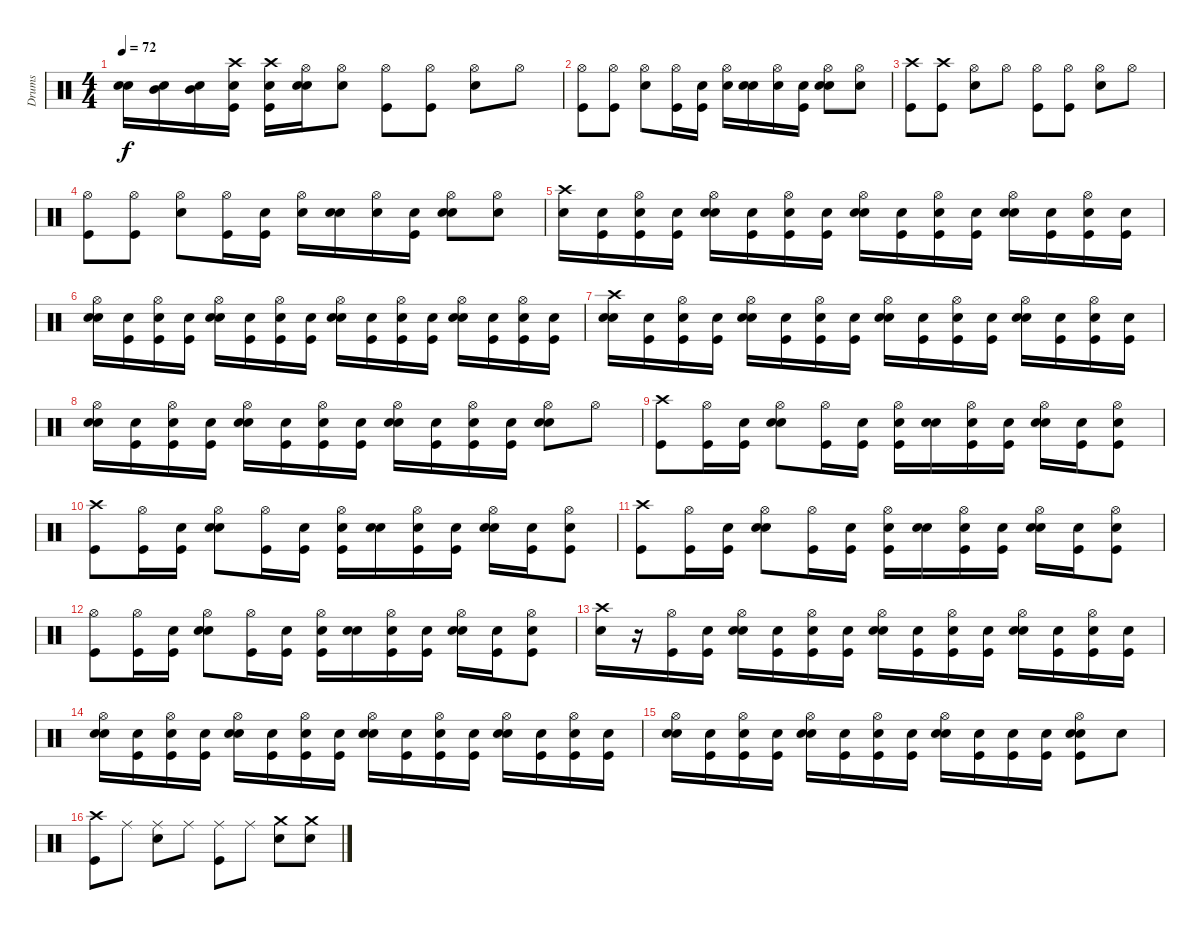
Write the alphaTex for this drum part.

\track ("Drums" "Drums") {instrument percussion}
\staff {score}
\articulation defaults
\ts (4 4)
\tempo 72
\clef neutral
\ks c
("Snare (hit)" "Snare (hit) 2").16{dy f} ("Snare (hit)" "Mid Tom (hit)").16 ("Snare (hit)" "Mid Tom (hit)").16 ("Snare (hit)" "Kick (hit)" "Crash high (hit)").16 ("Snare (hit)" "Kick (hit)" "Crash high (hit)").16 ("Snare (hit)" "Snare (hit) 2" "Hi-Hat (open)").16 ("Snare (hit)" "Hi-Hat (open)").8 ("Kick (hit)" "Hi-Hat (open)").8 ("Kick (hit)" "Hi-Hat (open)").8 ("Snare (hit) 2" "Hi-Hat (open)").8 "Hi-Hat (open)".8 |
("Kick (hit)" "Hi-Hat (open)").8 ("Kick (hit)" "Hi-Hat (open)").8 ("Snare (hit) 2" "Hi-Hat (open)").8 ("Kick (hit)" "Hi-Hat (open)").16 ("Snare (hit)" "Kick (hit)").16 ("Snare (hit)" "Hi-Hat (open)").16 ("Snare (hit)" "Snare (hit) 2").16 ("Snare (hit)" "Hi-Hat (open)").16 ("Snare (hit)" "Kick (hit)").16 ("Snare (hit)" "Snare (hit) 2" "Hi-Hat (open)").8 ("Snare (hit) 2" "Hi-Hat (open)").8 |
("Kick (hit)" "Crash high (hit)").8 ("Kick (hit)" "Crash high (hit)").8 ("Snare (hit) 2" "Hi-Hat (open)").8 "Hi-Hat (open)".8 ("Kick (hit)" "Hi-Hat (open)").8 ("Kick (hit)" "Hi-Hat (open)").8 ("Snare (hit) 2" "Hi-Hat (open)").8 "Hi-Hat (open)".8 |
("Kick (hit)" "Hi-Hat (open)").8 ("Kick (hit)" "Hi-Hat (open)").8 ("Snare (hit) 2" "Hi-Hat (open)").8 ("Kick (hit)" "Hi-Hat (open)").16 ("Snare (hit)" "Kick (hit)").16 ("Snare (hit)" "Hi-Hat (open)").16 ("Snare (hit)" "Snare (hit) 2").16 ("Snare (hit)" "Hi-Hat (open)").16 ("Snare (hit)" "Kick (hit)").16 ("Snare (hit)" "Snare (hit) 2" "Hi-Hat (open)").8 ("Snare (hit) 2" "Hi-Hat (open)").8 |
("Snare (hit) 2" "Crash high (hit)").16 ("Snare (hit)" "Kick (hit)").16 ("Snare (hit)" "Kick (hit)" "Hi-Hat (open)").16 ("Snare (hit)" "Kick (hit)").16 ("Snare (hit)" "Snare (hit) 2" "Hi-Hat (open)").16 ("Snare (hit)" "Kick (hit)").16 ("Snare (hit)" "Kick (hit)" "Hi-Hat (open)").16 ("Snare (hit)" "Kick (hit)").16 ("Snare (hit)" "Snare (hit) 2" "Hi-Hat (open)").16 ("Snare (hit)" "Kick (hit)").16 ("Snare (hit)" "Kick (hit)" "Hi-Hat (open)").16 ("Snare (hit)" "Kick (hit)").16 ("Snare (hit)" "Snare (hit) 2" "Hi-Hat (open)").16 ("Snare (hit)" "Kick (hit)").16 ("Snare (hit)" "Kick (hit)" "Hi-Hat (open)").16 ("Snare (hit)" "Kick (hit)").16 |
("Snare (hit)" "Snare (hit) 2" "Hi-Hat (open)").16 ("Snare (hit)" "Kick (hit)").16 ("Snare (hit)" "Kick (hit)" "Hi-Hat (open)").16 ("Snare (hit)" "Kick (hit)").16 ("Snare (hit)" "Snare (hit) 2" "Hi-Hat (open)").16 ("Snare (hit)" "Kick (hit)").16 ("Snare (hit)" "Kick (hit)" "Hi-Hat (open)").16 ("Snare (hit)" "Kick (hit)").16 ("Snare (hit)" "Snare (hit) 2" "Hi-Hat (open)").16 ("Snare (hit)" "Kick (hit)").16 ("Snare (hit)" "Kick (hit)" "Hi-Hat (open)").16 ("Snare (hit)" "Kick (hit)").16 ("Snare (hit)" "Snare (hit) 2" "Hi-Hat (open)").16 ("Snare (hit)" "Kick (hit)").16 ("Snare (hit)" "Kick (hit)" "Hi-Hat (open)").16 ("Snare (hit)" "Kick (hit)").16 |
("Snare (hit)" "Snare (hit) 2" "Crash high (hit)").16 ("Snare (hit)" "Kick (hit)").16 ("Snare (hit)" "Kick (hit)" "Hi-Hat (open)").16 ("Snare (hit)" "Kick (hit)").16 ("Snare (hit)" "Snare (hit) 2" "Hi-Hat (open)").16 ("Snare (hit)" "Kick (hit)").16 ("Snare (hit)" "Kick (hit)" "Hi-Hat (open)").16 ("Snare (hit)" "Kick (hit)").16 ("Snare (hit)" "Snare (hit) 2" "Hi-Hat (open)").16 ("Snare (hit)" "Kick (hit)").16 ("Snare (hit)" "Kick (hit)" "Hi-Hat (open)").16 ("Snare (hit)" "Kick (hit)").16 ("Snare (hit)" "Snare (hit) 2" "Hi-Hat (open)").16 ("Snare (hit)" "Kick (hit)").16 ("Snare (hit)" "Kick (hit)" "Hi-Hat (open)").16 ("Snare (hit)" "Kick (hit)").16 |
("Snare (hit)" "Snare (hit) 2" "Hi-Hat (open)").16 ("Snare (hit)" "Kick (hit)").16 ("Snare (hit)" "Kick (hit)" "Hi-Hat (open)").16 ("Snare (hit)" "Kick (hit)").16 ("Snare (hit)" "Snare (hit) 2" "Hi-Hat (open)").16 ("Snare (hit)" "Kick (hit)").16 ("Snare (hit)" "Kick (hit)" "Hi-Hat (open)").16 ("Snare (hit)" "Kick (hit)").16 ("Snare (hit)" "Snare (hit) 2" "Hi-Hat (open)").16 ("Snare (hit)" "Kick (hit)").16 ("Snare (hit)" "Kick (hit)" "Hi-Hat (open)").16 ("Snare (hit)" "Kick (hit)").16 ("Snare (hit)" "Snare (hit) 2" "Hi-Hat (open)").8 "Hi-Hat (open)".8 |
("Kick (hit)" "Crash high (hit)").8 ("Kick (hit)" "Hi-Hat (open)").16 ("Snare (hit)" "Kick (hit)").16 ("Snare (hit)" "Snare (hit) 2" "Hi-Hat (open)").8 ("Kick (hit)" "Hi-Hat (open)").16 ("Snare (hit)" "Kick (hit)").16 ("Snare (hit)" "Kick (hit)" "Hi-Hat (open)").16 ("Snare (hit)" "Snare (hit) 2").16 ("Snare (hit)" "Kick (hit)" "Hi-Hat (open)").16 ("Snare (hit)" "Kick (hit)").16 ("Snare (hit)" "Snare (hit) 2" "Hi-Hat (open)").16 ("Snare (hit)" "Kick (hit)").16 ("Snare (hit)" "Kick (hit)" "Hi-Hat (open)").8 |
("Kick (hit)" "Crash high (hit)").8 ("Kick (hit)" "Hi-Hat (open)").16 ("Snare (hit)" "Kick (hit)").16 ("Snare (hit)" "Snare (hit) 2" "Hi-Hat (open)").8 ("Kick (hit)" "Hi-Hat (open)").16 ("Snare (hit)" "Kick (hit)").16 ("Snare (hit)" "Kick (hit)" "Hi-Hat (open)").16 ("Snare (hit)" "Snare (hit) 2").16 ("Snare (hit)" "Kick (hit)" "Hi-Hat (open)").16 ("Snare (hit)" "Kick (hit)").16 ("Snare (hit)" "Snare (hit) 2" "Hi-Hat (open)").16 ("Snare (hit)" "Kick (hit)").16 ("Snare (hit)" "Kick (hit)" "Hi-Hat (open)").8 |
("Kick (hit)" "Crash high (hit)").8 ("Kick (hit)" "Hi-Hat (open)").16 ("Snare (hit)" "Kick (hit)").16 ("Snare (hit)" "Snare (hit) 2" "Hi-Hat (open)").8 ("Kick (hit)" "Hi-Hat (open)").16 ("Snare (hit)" "Kick (hit)").16 ("Snare (hit)" "Kick (hit)" "Hi-Hat (open)").16 ("Snare (hit)" "Snare (hit) 2").16 ("Snare (hit)" "Kick (hit)" "Hi-Hat (open)").16 ("Snare (hit)" "Kick (hit)").16 ("Snare (hit)" "Snare (hit) 2" "Hi-Hat (open)").16 ("Snare (hit)" "Kick (hit)").16 ("Snare (hit)" "Kick (hit)" "Hi-Hat (open)").8 |
("Kick (hit)" "Hi-Hat (open)").8 ("Kick (hit)" "Hi-Hat (open)").16 ("Snare (hit)" "Kick (hit)").16 ("Snare (hit)" "Snare (hit) 2" "Hi-Hat (open)").8 ("Kick (hit)" "Hi-Hat (open)").16 ("Snare (hit)" "Kick (hit)").16 ("Snare (hit)" "Kick (hit)" "Hi-Hat (open)").16 ("Snare (hit)" "Snare (hit) 2").16 ("Snare (hit)" "Kick (hit)" "Hi-Hat (open)").16 ("Snare (hit)" "Kick (hit)").16 ("Snare (hit)" "Snare (hit) 2" "Hi-Hat (open)").16 ("Snare (hit)" "Kick (hit)").16 ("Snare (hit)" "Kick (hit)" "Hi-Hat (open)").8 |
("Snare (hit) 2" "Crash high (hit)").16 r.16 ("Kick (hit)" "Hi-Hat (open)").16 ("Snare (hit)" "Kick (hit)").16 ("Snare (hit)" "Snare (hit) 2" "Hi-Hat (open)").16 ("Snare (hit)" "Kick (hit)").16 ("Snare (hit)" "Kick (hit)" "Hi-Hat (open)").16 ("Snare (hit)" "Kick (hit)").16 ("Snare (hit)" "Snare (hit) 2" "Hi-Hat (open)").16 ("Snare (hit)" "Kick (hit)").16 ("Snare (hit)" "Kick (hit)" "Hi-Hat (open)").16 ("Snare (hit)" "Kick (hit)").16 ("Snare (hit)" "Snare (hit) 2" "Hi-Hat (open)").16 ("Snare (hit)" "Kick (hit)").16 ("Snare (hit)" "Kick (hit)" "Hi-Hat (open)").16 ("Snare (hit)" "Kick (hit)").16 |
("Snare (hit)" "Snare (hit) 2" "Hi-Hat (open)").16 ("Snare (hit)" "Kick (hit)").16 ("Snare (hit)" "Kick (hit)" "Hi-Hat (open)").16 ("Snare (hit)" "Kick (hit)").16 ("Snare (hit)" "Snare (hit) 2" "Hi-Hat (open)").16 ("Snare (hit)" "Kick (hit)").16 ("Snare (hit)" "Kick (hit)" "Hi-Hat (open)").16 ("Snare (hit)" "Kick (hit)").16 ("Snare (hit)" "Snare (hit) 2" "Hi-Hat (open)").16 ("Snare (hit)" "Kick (hit)").16 ("Snare (hit)" "Kick (hit)" "Hi-Hat (open)").16 ("Snare (hit)" "Kick (hit)").16 ("Snare (hit)" "Snare (hit) 2" "Hi-Hat (open)").16 ("Snare (hit)" "Kick (hit)").16 ("Snare (hit)" "Kick (hit)" "Hi-Hat (open)").16 ("Snare (hit)" "Kick (hit)").16 |
("Snare (hit)" "Snare (hit) 2" "Hi-Hat (open)").16 ("Snare (hit)" "Kick (hit)").16 ("Snare (hit)" "Kick (hit)" "Hi-Hat (open)").16 ("Snare (hit)" "Kick (hit)").16 ("Snare (hit)" "Snare (hit) 2" "Hi-Hat (open)").16 ("Snare (hit)" "Kick (hit)").16 ("Snare (hit)" "Kick (hit)" "Hi-Hat (open)").16 ("Snare (hit)" "Kick (hit)").16 ("Snare (hit)" "Snare (hit) 2" "Hi-Hat (open)").16 ("Snare (hit)" "Kick (hit)").16 ("Snare (hit)" "Kick (hit)").16 ("Snare (hit)" "Kick (hit)").16 ("Snare (hit)" "Kick (hit)" "Snare (hit) 2" "Hi-Hat (open)").8 "Snare (hit) 2".8 |
("Kick (hit)" "Crash high (hit)").8 "Ride (middle)".8 ("Ride (middle)" "Snare (hit) 2").8 "Ride (middle)".8 ("Kick (hit)" "Ride (middle)").8 "Ride (middle)".8 ("Snare (hit) 2" "Crash medium (hit)").8 ("Snare (hit) 2" "Crash medium (hit)").8
